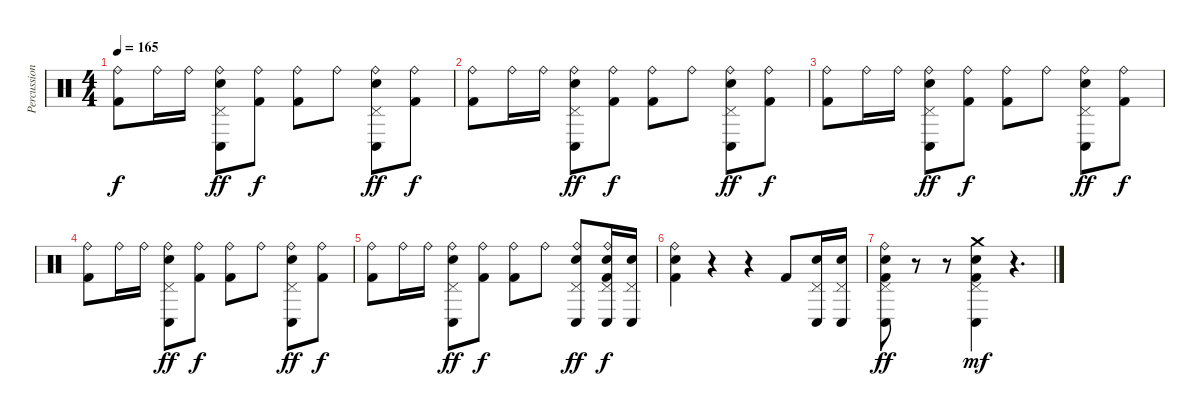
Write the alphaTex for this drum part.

\track ("Percussion" "Percussion") {instrument percussion}
\staff {score}
\articulation defaults
\ts (4 4)
\tempo 165
\clef neutral
\ks c
("Ride (bell)" "Kick (hit) 2").8{dy f} "Ride (bell)".16 "Ride (bell)".16 ("Ride (bell)" "Pedal Hi-Hat (hit)" "Conga low (hit)" "Electric Snare (hit)").8{dy ff} ("Ride (bell)" "Kick (hit) 2").8{dy f} ("Ride (bell)" "Kick (hit) 2").8 "Ride (bell)".8 ("Ride (bell)" "Pedal Hi-Hat (hit)" "Conga low (hit)" "Electric Snare (hit)").8{dy ff} ("Ride (bell)" "Kick (hit) 2").8{dy f} |
("Ride (bell)" "Kick (hit) 2").8 "Ride (bell)".16 "Ride (bell)".16 ("Ride (bell)" "Pedal Hi-Hat (hit)" "Conga low (hit)" "Electric Snare (hit)").8{dy ff} ("Ride (bell)" "Kick (hit) 2").8{dy f} ("Ride (bell)" "Kick (hit) 2").8 "Ride (bell)".8 ("Ride (bell)" "Pedal Hi-Hat (hit)" "Conga low (hit)" "Electric Snare (hit)").8{dy ff} ("Ride (bell)" "Kick (hit) 2").8{dy f} |
("Ride (bell)" "Kick (hit) 2").8 "Ride (bell)".16 "Ride (bell)".16 ("Ride (bell)" "Pedal Hi-Hat (hit)" "Conga low (hit)" "Electric Snare (hit)").8{dy ff} ("Ride (bell)" "Kick (hit) 2").8{dy f} ("Ride (bell)" "Kick (hit) 2").8 "Ride (bell)".8 ("Ride (bell)" "Pedal Hi-Hat (hit)" "Conga low (hit)" "Electric Snare (hit)").8{dy ff} ("Ride (bell)" "Kick (hit) 2").8{dy f} |
("Ride (bell)" "Kick (hit) 2").8 "Ride (bell)".16 "Ride (bell)".16 ("Ride (bell)" "Pedal Hi-Hat (hit)" "Conga low (hit)" "Electric Snare (hit)").8{dy ff} ("Ride (bell)" "Kick (hit) 2").8{dy f} ("Ride (bell)" "Kick (hit) 2").8 "Ride (bell)".8 ("Ride (bell)" "Pedal Hi-Hat (hit)" "Conga low (hit)" "Electric Snare (hit)").8{dy ff} ("Ride (bell)" "Kick (hit) 2").8{dy f} |
("Ride (bell)" "Kick (hit) 2").8 "Ride (bell)".16 "Ride (bell)".16 ("Ride (bell)" "Pedal Hi-Hat (hit)" "Conga low (hit)" "Electric Snare (hit)").8{dy ff} ("Ride (bell)" "Kick (hit) 2").8{dy f} ("Ride (bell)" "Kick (hit) 2").8 "Ride (bell)".8 ("Ride (bell)" "Pedal Hi-Hat (hit)" "Conga low (hit)" "Electric Snare (hit)").8{dy ff} ("Ride (bell)" "Pedal Hi-Hat (hit)" "Conga low (hit)" "Electric Snare (hit)" "Kick (hit) 2").16{dy f} ("Pedal Hi-Hat (hit)" "Conga low (hit)" "Electric Snare (hit)").16 |
("Ride (bell)" "Electric Snare (hit)" "Kick (hit) 2").4 r.4 r.4 "Kick (hit) 2".8 ("Pedal Hi-Hat (hit)" "Conga low (hit)" "Electric Snare (hit)").16 ("Pedal Hi-Hat (hit)" "Conga low (hit)" "Electric Snare (hit)").16 |
("Ride (bell)" "Pedal Hi-Hat (hit)" "Conga low (hit)" "Electric Snare (hit)" "Kick (hit) 2").8{dy ff} r.8 r.8 ("Crash medium (hit)" "Pedal Hi-Hat (hit)" "Conga low (hit)" "Electric Snare (hit)" "Kick (hit) 2").4{dy mf} r.4{d}
